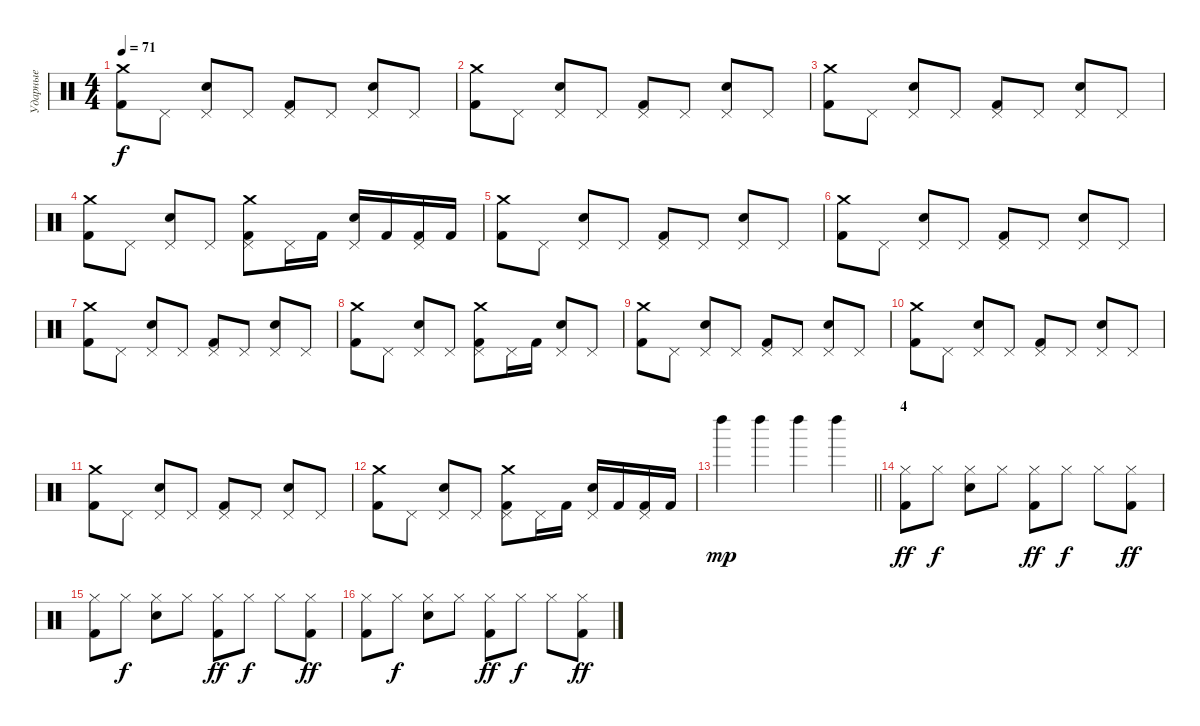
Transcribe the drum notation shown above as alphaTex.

\track ("Ударные" "Ударные") {instrument percussion}
\staff {score}
\articulation defaults
\ts (4 4)
\tempo 71
\clef neutral
\ks c
("Crash medium (hit)" "Kick (hit) 2").8{dy f} "Pedal Hi-Hat (hit)".8 ("Pedal Hi-Hat (hit)" "Snare (hit) 2").8 "Pedal Hi-Hat (hit)".8 ("Pedal Hi-Hat (hit)" "Kick (hit) 2").8 "Pedal Hi-Hat (hit)".8 ("Pedal Hi-Hat (hit)" "Snare (hit) 2").8 "Pedal Hi-Hat (hit)".8 |
("Crash medium (hit)" "Kick (hit) 2").8 "Pedal Hi-Hat (hit)".8 ("Pedal Hi-Hat (hit)" "Snare (hit) 2").8 "Pedal Hi-Hat (hit)".8 ("Pedal Hi-Hat (hit)" "Kick (hit) 2").8 "Pedal Hi-Hat (hit)".8 ("Pedal Hi-Hat (hit)" "Snare (hit) 2").8 "Pedal Hi-Hat (hit)".8 |
("Crash medium (hit)" "Kick (hit) 2").8 "Pedal Hi-Hat (hit)".8 ("Pedal Hi-Hat (hit)" "Snare (hit) 2").8 "Pedal Hi-Hat (hit)".8 ("Pedal Hi-Hat (hit)" "Kick (hit) 2").8 "Pedal Hi-Hat (hit)".8 ("Pedal Hi-Hat (hit)" "Snare (hit) 2").8 "Pedal Hi-Hat (hit)".8 |
("Crash medium (hit)" "Kick (hit) 2").8 "Pedal Hi-Hat (hit)".8 ("Pedal Hi-Hat (hit)" "Snare (hit) 2").8 "Pedal Hi-Hat (hit)".8 ("Crash medium (hit)" "Pedal Hi-Hat (hit)" "Kick (hit) 2").8 "Pedal Hi-Hat (hit)".16 "Kick (hit) 2".16 ("Pedal Hi-Hat (hit)" "Snare (hit) 2").16 "Kick (hit) 2".16 ("Pedal Hi-Hat (hit)" "Kick (hit) 2").16 "Kick (hit) 2".16 |
("Crash medium (hit)" "Kick (hit) 2").8 "Pedal Hi-Hat (hit)".8 ("Pedal Hi-Hat (hit)" "Snare (hit) 2").8 "Pedal Hi-Hat (hit)".8 ("Pedal Hi-Hat (hit)" "Kick (hit) 2").8 "Pedal Hi-Hat (hit)".8 ("Pedal Hi-Hat (hit)" "Snare (hit) 2").8 "Pedal Hi-Hat (hit)".8 |
("Crash medium (hit)" "Kick (hit) 2").8 "Pedal Hi-Hat (hit)".8 ("Pedal Hi-Hat (hit)" "Snare (hit) 2").8 "Pedal Hi-Hat (hit)".8 ("Pedal Hi-Hat (hit)" "Kick (hit) 2").8 "Pedal Hi-Hat (hit)".8 ("Pedal Hi-Hat (hit)" "Snare (hit) 2").8 "Pedal Hi-Hat (hit)".8 |
("Crash medium (hit)" "Kick (hit) 2").8 "Pedal Hi-Hat (hit)".8 ("Pedal Hi-Hat (hit)" "Snare (hit) 2").8 "Pedal Hi-Hat (hit)".8 ("Pedal Hi-Hat (hit)" "Kick (hit) 2").8 "Pedal Hi-Hat (hit)".8 ("Pedal Hi-Hat (hit)" "Snare (hit) 2").8 "Pedal Hi-Hat (hit)".8 |
("Crash medium (hit)" "Kick (hit) 2").8 "Pedal Hi-Hat (hit)".8 ("Pedal Hi-Hat (hit)" "Snare (hit) 2").8 "Pedal Hi-Hat (hit)".8 ("Crash medium (hit)" "Pedal Hi-Hat (hit)" "Kick (hit) 2").8 "Pedal Hi-Hat (hit)".16 "Kick (hit) 2".16 ("Pedal Hi-Hat (hit)" "Snare (hit) 2").8 "Pedal Hi-Hat (hit)".8 |
("Crash medium (hit)" "Kick (hit) 2").8 "Pedal Hi-Hat (hit)".8 ("Pedal Hi-Hat (hit)" "Snare (hit) 2").8 "Pedal Hi-Hat (hit)".8 ("Pedal Hi-Hat (hit)" "Kick (hit) 2").8 "Pedal Hi-Hat (hit)".8 ("Pedal Hi-Hat (hit)" "Snare (hit) 2").8 "Pedal Hi-Hat (hit)".8 |
("Crash medium (hit)" "Kick (hit) 2").8 "Pedal Hi-Hat (hit)".8 ("Pedal Hi-Hat (hit)" "Snare (hit) 2").8 "Pedal Hi-Hat (hit)".8 ("Pedal Hi-Hat (hit)" "Kick (hit) 2").8 "Pedal Hi-Hat (hit)".8 ("Pedal Hi-Hat (hit)" "Snare (hit) 2").8 "Pedal Hi-Hat (hit)".8 |
("Crash medium (hit)" "Kick (hit) 2").8 "Pedal Hi-Hat (hit)".8 ("Pedal Hi-Hat (hit)" "Snare (hit) 2").8 "Pedal Hi-Hat (hit)".8 ("Pedal Hi-Hat (hit)" "Kick (hit) 2").8 "Pedal Hi-Hat (hit)".8 ("Pedal Hi-Hat (hit)" "Snare (hit) 2").8 "Pedal Hi-Hat (hit)".8 |
("Crash medium (hit)" "Kick (hit) 2").8 "Pedal Hi-Hat (hit)".8 ("Pedal Hi-Hat (hit)" "Snare (hit) 2").8 "Pedal Hi-Hat (hit)".8 ("Crash medium (hit)" "Pedal Hi-Hat (hit)" "Kick (hit) 2").8 "Pedal Hi-Hat (hit)".16 "Kick (hit) 2".16 ("Pedal Hi-Hat (hit)" "Snare (hit) 2").16 "Kick (hit) 2".16 ("Pedal Hi-Hat (hit)" "Kick (hit) 2").16 "Kick (hit) 2".16 |
\barLineRight lightlight "Left Maraca (hit)".4{dy mp} "Left Maraca (hit)".4 "Left Maraca (hit)".4 "Left Maraca (hit)".4
|
\section ("" "4")
("Hi-Hat (closed)" "Kick (hit) 2").8{dy ff} "Hi-Hat (closed)".8{dy f} ("Hi-Hat (closed)" "Snare (hit) 2").8 "Hi-Hat (closed)".8 ("Hi-Hat (closed)" "Kick (hit) 2").8{dy ff} "Hi-Hat (closed)".8{dy f} "Hi-Hat (closed)".8 ("Hi-Hat (closed)" "Kick (hit) 2").8{dy ff} |
("Hi-Hat (closed)" "Kick (hit) 2").8 "Hi-Hat (closed)".8{dy f} ("Hi-Hat (closed)" "Snare (hit) 2").8 "Hi-Hat (closed)".8 ("Hi-Hat (closed)" "Kick (hit) 2").8{dy ff} "Hi-Hat (closed)".8{dy f} "Hi-Hat (closed)".8 ("Hi-Hat (closed)" "Kick (hit) 2").8{dy ff} |
("Hi-Hat (closed)" "Kick (hit) 2").8 "Hi-Hat (closed)".8{dy f} ("Hi-Hat (closed)" "Snare (hit) 2").8 "Hi-Hat (closed)".8 ("Hi-Hat (closed)" "Kick (hit) 2").8{dy ff} "Hi-Hat (closed)".8{dy f} "Hi-Hat (closed)".8 ("Hi-Hat (closed)" "Kick (hit) 2").8{dy ff}
